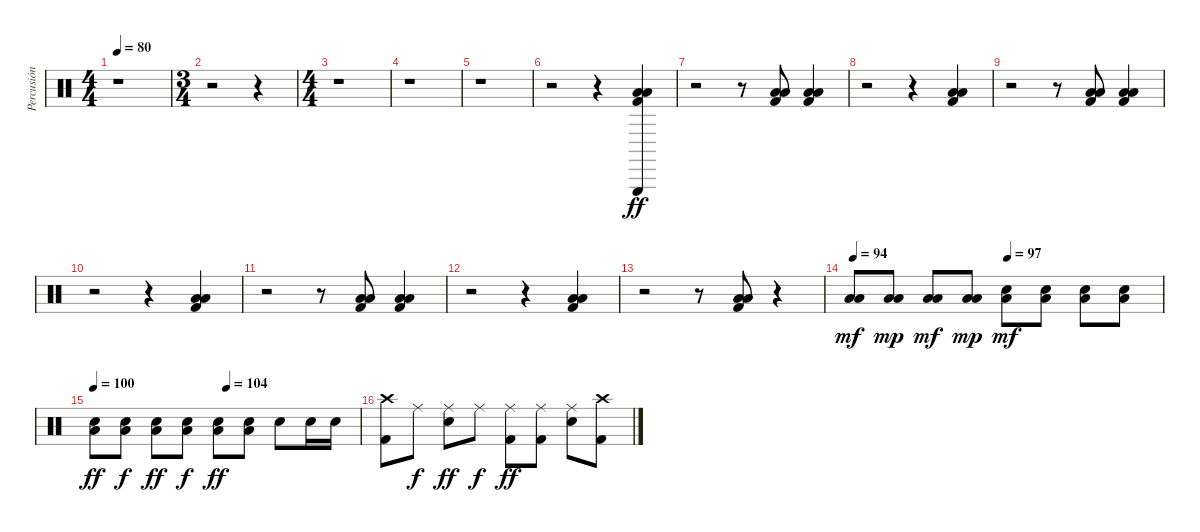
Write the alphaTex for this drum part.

\track ("Percusión" "Percusión") {instrument percussion}
\staff {score}
\articulation defaults
\ts (4 4)
\tempo 80
\clef neutral
\ks c
r.1{dy ff} |
\ts (3 4)
r.2 r.4 |
\ts (4 4)
r.1 |
r.1 |
r.1 |
r.2 r.4 ("Low Tom (hit)" "Low Floor Tom (hit)" "Kick (hit) 2" "Triangle (hit)").4 |
r.2 r.8 ("Low Tom (hit)" "Low Floor Tom (hit)" "Kick (hit) 2").8 ("Low Tom (hit)" "Low Floor Tom (hit)" "Kick (hit) 2").4 |
r.2 r.4 ("Low Tom (hit)" "Low Floor Tom (hit)" "Kick (hit) 2").4 |
r.2 r.8 ("Low Tom (hit)" "Low Floor Tom (hit)" "Kick (hit) 2").8 ("Low Tom (hit)" "Low Floor Tom (hit)" "Kick (hit) 2").4 |
r.2 r.4 ("Low Tom (hit)" "Low Floor Tom (hit)" "Kick (hit) 2").4 |
r.2 r.8 ("Low Tom (hit)" "Low Floor Tom (hit)" "Kick (hit) 2").8 ("Low Tom (hit)" "Low Floor Tom (hit)" "Kick (hit) 2").4 |
r.2 r.4 ("Low Tom (hit)" "Low Floor Tom (hit)" "Kick (hit) 2").4 |
r.2 r.8 ("Low Tom (hit)" "Low Floor Tom (hit)" "Kick (hit) 2").8 r.4 |
\tempo 94
\tempo (97 0.5)
("Low Tom (hit)" "Low Floor Tom (hit)").8{dy mf} ("Low Tom (hit)" "Low Floor Tom (hit)").8{dy mp} ("Low Tom (hit)" "Low Floor Tom (hit)").8{dy mf} ("Low Tom (hit)" "Low Floor Tom (hit)").8{dy mp} ("Snare (hit) 2" "Low Floor Tom (hit)").8{dy mf} ("Snare (hit) 2" "Low Floor Tom (hit)").8 ("Snare (hit) 2" "Low Floor Tom (hit)").8 ("Snare (hit) 2" "Low Floor Tom (hit)").8 |
\tempo 100
\tempo (104 0.5)
("Snare (hit) 2" "Low Floor Tom (hit)").8{dy ff} ("Snare (hit) 2" "Low Floor Tom (hit)").8{dy f} ("Snare (hit) 2" "Low Floor Tom (hit)").8{dy ff} ("Snare (hit) 2" "Low Floor Tom (hit)").8{dy f} ("Snare (hit) 2" "Low Floor Tom (hit)").8{dy ff} ("Snare (hit) 2" "Low Floor Tom (hit)").8 "Snare (hit) 2".8 "Snare (hit) 2".16 "Snare (hit) 2".16 |
("Crash high (hit)" "Kick (hit) 2").8 "Ride (middle)".8{dy f} ("Ride (middle)" "Snare (hit) 2").8{dy ff} "Ride (middle)".8{dy f} ("Ride (middle)" "Kick (hit) 2").8{dy ff} ("Ride (middle)" "Kick (hit) 2").8 ("Ride (middle)" "Snare (hit) 2").8 ("Crash high (hit)" "Kick (hit) 2").8
